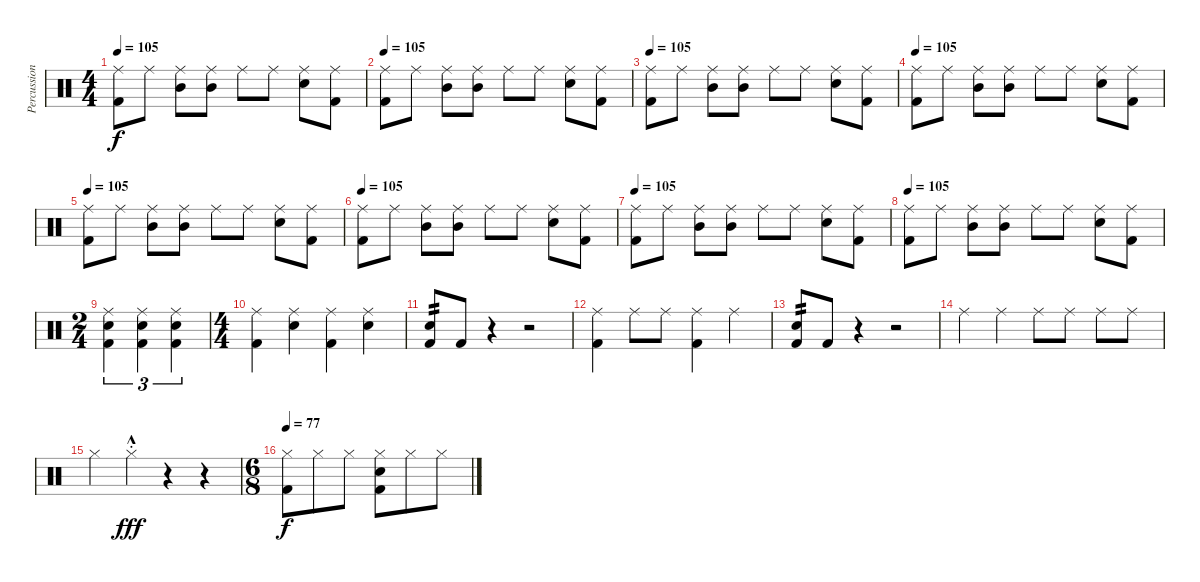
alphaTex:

\track ("Percussion" "Percussion") {instrument percussion}
\staff {score}
\articulation defaults
\ts (4 4)
\tempo 105
\clef neutral
\ks c
("Ride (middle)" "Kick (hit) 2").8{dy f} "Ride (middle)".8 ("Ride (middle)" "Mid Tom (hit)").8 ("Ride (middle)" "Mid Tom (hit)").8 "Ride (middle)".8 "Ride (middle)".8 ("Ride (middle)" "Snare (hit) 2").8 ("Ride (middle)" "Kick (hit) 2").8 |
\tempo 105
("Ride (middle)" "Kick (hit) 2").8 "Ride (middle)".8 ("Ride (middle)" "Mid Tom (hit)").8 ("Ride (middle)" "Mid Tom (hit)").8 "Ride (middle)".8 "Ride (middle)".8 ("Ride (middle)" "Snare (hit) 2").8 ("Ride (middle)" "Kick (hit) 2").8 |
\tempo 105
("Ride (middle)" "Kick (hit) 2").8 "Ride (middle)".8 ("Ride (middle)" "Mid Tom (hit)").8 ("Ride (middle)" "Mid Tom (hit)").8 "Ride (middle)".8 "Ride (middle)".8 ("Ride (middle)" "Snare (hit) 2").8 ("Ride (middle)" "Kick (hit) 2").8 |
\tempo 105
("Ride (middle)" "Kick (hit) 2").8 "Ride (middle)".8 ("Ride (middle)" "Mid Tom (hit)").8 ("Ride (middle)" "Mid Tom (hit)").8 "Ride (middle)".8 "Ride (middle)".8 ("Ride (middle)" "Snare (hit) 2").8 ("Ride (middle)" "Kick (hit) 2").8 |
\tempo 105
("Ride (middle)" "Kick (hit) 2").8 "Ride (middle)".8 ("Ride (middle)" "Mid Tom (hit)").8 ("Ride (middle)" "Mid Tom (hit)").8 "Ride (middle)".8 "Ride (middle)".8 ("Ride (middle)" "Snare (hit) 2").8 ("Ride (middle)" "Kick (hit) 2").8 |
\tempo 105
("Ride (middle)" "Kick (hit) 2").8 "Ride (middle)".8 ("Ride (middle)" "Mid Tom (hit)").8 ("Ride (middle)" "Mid Tom (hit)").8 "Ride (middle)".8 "Ride (middle)".8 ("Ride (middle)" "Snare (hit) 2").8 ("Ride (middle)" "Kick (hit) 2").8 |
\tempo 105
("Ride (middle)" "Kick (hit) 2").8 "Ride (middle)".8 ("Ride (middle)" "Mid Tom (hit)").8 ("Ride (middle)" "Mid Tom (hit)").8 "Ride (middle)".8 "Ride (middle)".8 ("Ride (middle)" "Snare (hit) 2").8 ("Ride (middle)" "Kick (hit) 2").8 |
\tempo 105
("Ride (middle)" "Kick (hit) 2").8 "Ride (middle)".8 ("Ride (middle)" "Mid Tom (hit)").8 ("Ride (middle)" "Mid Tom (hit)").8 "Ride (middle)".8 "Ride (middle)".8 ("Ride (middle)" "Snare (hit) 2").8 ("Ride (middle)" "Kick (hit) 2").8 |
\ts (2 4)
("Ride (middle)" "Snare (hit) 2" "Kick (hit) 2").4{tu (3 2)} ("Ride (middle)" "Snare (hit) 2" "Kick (hit) 2").4{tu (3 2)} ("Ride (middle)" "Snare (hit) 2" "Kick (hit) 2").4{tu (3 2)} |
\ts (4 4)
("Ride (middle)" "Kick (hit) 2").4 ("Ride (middle)" "Snare (hit) 2").4 ("Ride (middle)" "Kick (hit) 2").4 ("Ride (middle)" "Snare (hit) 2").4 |
("Snare (hit) 2" "Kick (hit) 2").8{tp 2} "Kick (hit) 2".8 r.4 r.2 |
("Ride (middle)" "Kick (hit) 2").4 "Ride (middle)".8 "Ride (middle)".8 ("Ride (middle)" "Kick (hit) 2").4 "Ride (middle)".4 |
("Snare (hit) 2" "Kick (hit) 2").8{tp 2} "Kick (hit) 2".8 r.4 r.2 |
"Ride (middle)".4 "Ride (middle)".4 "Ride (middle)".8 "Ride (middle)".8 "Ride (middle)".8 "Ride (middle)".8 |
"Hi-Hat (closed)".4 "Hi-Hat (closed)"{hac st}.4{dy fff} r.4 r.4 |
\ts (6 8)
\tempo 77
("Hi-Hat (closed)" "Kick (hit) 2").8{dy f} "Hi-Hat (closed)".8 "Hi-Hat (closed)".8 ("Hi-Hat (closed)" "Snare (hit) 2" "Kick (hit) 2").8 "Hi-Hat (closed)".8 "Hi-Hat (closed)".8
